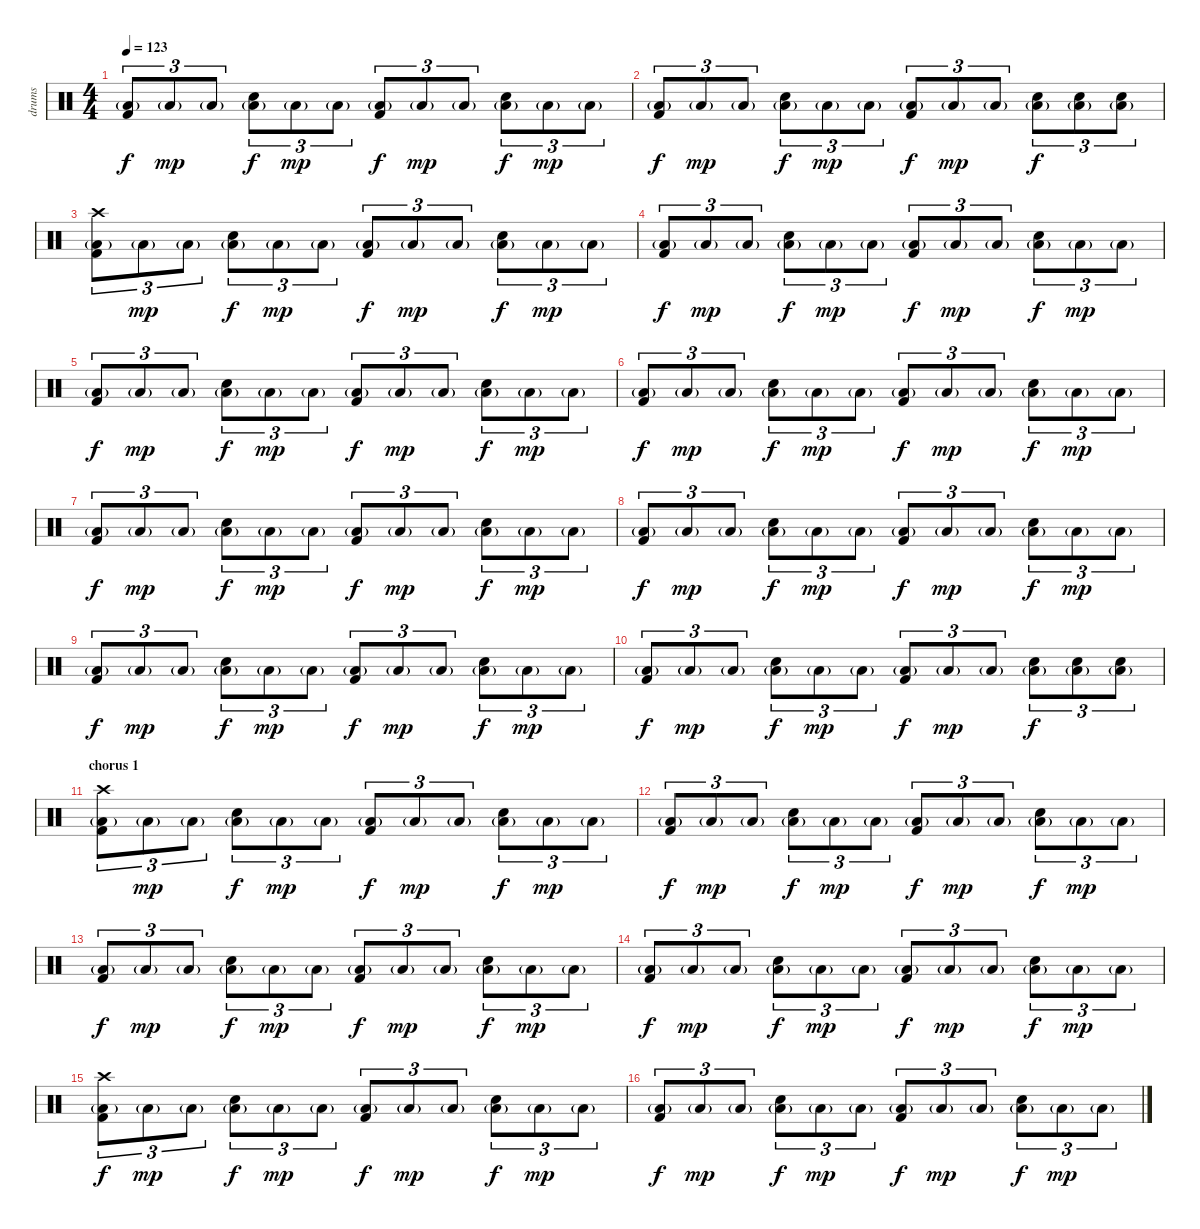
\track ("drums" "drums") {instrument percussion}
\staff {score}
\articulation defaults
\ts (4 4)
\tempo 123
\clef neutral
\ks c
("Low Floor Tom (hit)"{g} "Kick (hit) 2").8{tu (3 2) txt "" dy f} "Low Floor Tom (hit)"{g}.8{tu (3 2) txt "" dy mp} "Low Floor Tom (hit)"{g}.8{tu (3 2) txt ""} ("Low Floor Tom (hit)"{g} "Electric Snare (hit)").8{tu (3 2) txt "" dy f} "Low Floor Tom (hit)"{g}.8{tu (3 2) txt "" dy mp} "Low Floor Tom (hit)"{g}.8{tu (3 2) txt ""} ("Low Floor Tom (hit)"{g} "Kick (hit) 2").8{tu (3 2) txt "" dy f} "Low Floor Tom (hit)"{g}.8{tu (3 2) txt "" dy mp} "Low Floor Tom (hit)"{g}.8{tu (3 2) txt ""} ("Low Floor Tom (hit)"{g} "Electric Snare (hit)").8{tu (3 2) txt "" dy f} "Low Floor Tom (hit)"{g}.8{tu (3 2) txt "" dy mp} "Low Floor Tom (hit)"{g}.8{tu (3 2) txt ""} |
("Low Floor Tom (hit)"{g} "Kick (hit) 2").8{tu (3 2) txt "" dy f} "Low Floor Tom (hit)"{g}.8{tu (3 2) txt "" dy mp} "Low Floor Tom (hit)"{g}.8{tu (3 2) txt ""} ("Low Floor Tom (hit)"{g} "Electric Snare (hit)").8{tu (3 2) txt "" dy f} "Low Floor Tom (hit)"{g}.8{tu (3 2) txt "" dy mp} "Low Floor Tom (hit)"{g}.8{tu (3 2) txt ""} ("Low Floor Tom (hit)"{g} "Kick (hit) 2").8{tu (3 2) txt "" dy f} "Low Floor Tom (hit)"{g}.8{tu (3 2) txt "" dy mp} "Low Floor Tom (hit)"{g}.8{tu (3 2) txt ""} ("Low Floor Tom (hit)"{g} "Electric Snare (hit)").8{tu (3 2) txt "" dy f} ("Low Floor Tom (hit)"{g} "Electric Snare (hit)").8{tu (3 2) txt ""} ("Low Floor Tom (hit)"{g} "Electric Snare (hit)").8{tu (3 2) txt ""} |
("Low Floor Tom (hit)"{g} "Kick (hit) 2" "Crash high (hit)").8{tu (3 2) txt ""} "Low Floor Tom (hit)"{g}.8{tu (3 2) txt "" dy mp} "Low Floor Tom (hit)"{g}.8{tu (3 2) txt ""} ("Low Floor Tom (hit)"{g} "Electric Snare (hit)").8{tu (3 2) txt "" dy f} "Low Floor Tom (hit)"{g}.8{tu (3 2) txt "" dy mp} "Low Floor Tom (hit)"{g}.8{tu (3 2) txt ""} ("Low Floor Tom (hit)"{g} "Kick (hit) 2").8{tu (3 2) txt "" dy f} "Low Floor Tom (hit)"{g}.8{tu (3 2) txt "" dy mp} "Low Floor Tom (hit)"{g}.8{tu (3 2) txt ""} ("Low Floor Tom (hit)"{g} "Electric Snare (hit)").8{tu (3 2) txt "" dy f} "Low Floor Tom (hit)"{g}.8{tu (3 2) txt "" dy mp} "Low Floor Tom (hit)"{g}.8{tu (3 2) txt ""} |
("Low Floor Tom (hit)"{g} "Kick (hit) 2").8{tu (3 2) txt "" dy f} "Low Floor Tom (hit)"{g}.8{tu (3 2) txt "" dy mp} "Low Floor Tom (hit)"{g}.8{tu (3 2) txt ""} ("Low Floor Tom (hit)"{g} "Electric Snare (hit)").8{tu (3 2) txt "" dy f} "Low Floor Tom (hit)"{g}.8{tu (3 2) txt "" dy mp} "Low Floor Tom (hit)"{g}.8{tu (3 2) txt ""} ("Low Floor Tom (hit)"{g} "Kick (hit) 2").8{tu (3 2) txt "" dy f} "Low Floor Tom (hit)"{g}.8{tu (3 2) txt "" dy mp} "Low Floor Tom (hit)"{g}.8{tu (3 2) txt ""} ("Low Floor Tom (hit)"{g} "Electric Snare (hit)").8{tu (3 2) txt "" dy f} "Low Floor Tom (hit)"{g}.8{tu (3 2) txt "" dy mp} "Low Floor Tom (hit)"{g}.8{tu (3 2) txt ""} |
("Low Floor Tom (hit)"{g} "Kick (hit) 2").8{tu (3 2) txt "" dy f} "Low Floor Tom (hit)"{g}.8{tu (3 2) txt "" dy mp} "Low Floor Tom (hit)"{g}.8{tu (3 2) txt ""} ("Low Floor Tom (hit)"{g} "Electric Snare (hit)").8{tu (3 2) txt "" dy f} "Low Floor Tom (hit)"{g}.8{tu (3 2) txt "" dy mp} "Low Floor Tom (hit)"{g}.8{tu (3 2) txt ""} ("Low Floor Tom (hit)"{g} "Kick (hit) 2").8{tu (3 2) txt "" dy f} "Low Floor Tom (hit)"{g}.8{tu (3 2) txt "" dy mp} "Low Floor Tom (hit)"{g}.8{tu (3 2) txt ""} ("Low Floor Tom (hit)"{g} "Electric Snare (hit)").8{tu (3 2) txt "" dy f} "Low Floor Tom (hit)"{g}.8{tu (3 2) txt "" dy mp} "Low Floor Tom (hit)"{g}.8{tu (3 2) txt ""} |
("Low Floor Tom (hit)"{g} "Kick (hit) 2").8{tu (3 2) txt "" dy f} "Low Floor Tom (hit)"{g}.8{tu (3 2) txt "" dy mp} "Low Floor Tom (hit)"{g}.8{tu (3 2) txt ""} ("Low Floor Tom (hit)"{g} "Electric Snare (hit)").8{tu (3 2) txt "" dy f} "Low Floor Tom (hit)"{g}.8{tu (3 2) txt "" dy mp} "Low Floor Tom (hit)"{g}.8{tu (3 2) txt ""} ("Low Floor Tom (hit)"{g} "Kick (hit) 2").8{tu (3 2) txt "" dy f} "Low Floor Tom (hit)"{g}.8{tu (3 2) txt "" dy mp} "Low Floor Tom (hit)"{g}.8{tu (3 2) txt ""} ("Low Floor Tom (hit)"{g} "Electric Snare (hit)").8{tu (3 2) txt "" dy f} "Low Floor Tom (hit)"{g}.8{tu (3 2) txt "" dy mp} "Low Floor Tom (hit)"{g}.8{tu (3 2) txt ""} |
("Low Floor Tom (hit)"{g} "Kick (hit) 2").8{tu (3 2) txt "" dy f} "Low Floor Tom (hit)"{g}.8{tu (3 2) txt "" dy mp} "Low Floor Tom (hit)"{g}.8{tu (3 2) txt ""} ("Low Floor Tom (hit)"{g} "Electric Snare (hit)").8{tu (3 2) txt "" dy f} "Low Floor Tom (hit)"{g}.8{tu (3 2) txt "" dy mp} "Low Floor Tom (hit)"{g}.8{tu (3 2) txt ""} ("Low Floor Tom (hit)"{g} "Kick (hit) 2").8{tu (3 2) txt "" dy f} "Low Floor Tom (hit)"{g}.8{tu (3 2) txt "" dy mp} "Low Floor Tom (hit)"{g}.8{tu (3 2) txt ""} ("Low Floor Tom (hit)"{g} "Electric Snare (hit)").8{tu (3 2) txt "" dy f} "Low Floor Tom (hit)"{g}.8{tu (3 2) txt "" dy mp} "Low Floor Tom (hit)"{g}.8{tu (3 2) txt ""} |
("Low Floor Tom (hit)"{g} "Kick (hit) 2").8{tu (3 2) txt "" dy f} "Low Floor Tom (hit)"{g}.8{tu (3 2) txt "" dy mp} "Low Floor Tom (hit)"{g}.8{tu (3 2) txt ""} ("Low Floor Tom (hit)"{g} "Electric Snare (hit)").8{tu (3 2) txt "" dy f} "Low Floor Tom (hit)"{g}.8{tu (3 2) txt "" dy mp} "Low Floor Tom (hit)"{g}.8{tu (3 2) txt ""} ("Low Floor Tom (hit)"{g} "Kick (hit) 2").8{tu (3 2) txt "" dy f} "Low Floor Tom (hit)"{g}.8{tu (3 2) txt "" dy mp} "Low Floor Tom (hit)"{g}.8{tu (3 2) txt ""} ("Low Floor Tom (hit)"{g} "Electric Snare (hit)").8{tu (3 2) txt "" dy f} "Low Floor Tom (hit)"{g}.8{tu (3 2) txt "" dy mp} "Low Floor Tom (hit)"{g}.8{tu (3 2) txt ""} |
("Low Floor Tom (hit)"{g} "Kick (hit) 2").8{tu (3 2) txt "" dy f} "Low Floor Tom (hit)"{g}.8{tu (3 2) txt "" dy mp} "Low Floor Tom (hit)"{g}.8{tu (3 2) txt ""} ("Low Floor Tom (hit)"{g} "Electric Snare (hit)").8{tu (3 2) txt "" dy f} "Low Floor Tom (hit)"{g}.8{tu (3 2) txt "" dy mp} "Low Floor Tom (hit)"{g}.8{tu (3 2) txt ""} ("Low Floor Tom (hit)"{g} "Kick (hit) 2").8{tu (3 2) txt "" dy f} "Low Floor Tom (hit)"{g}.8{tu (3 2) txt "" dy mp} "Low Floor Tom (hit)"{g}.8{tu (3 2) txt ""} ("Low Floor Tom (hit)"{g} "Electric Snare (hit)").8{tu (3 2) txt "" dy f} "Low Floor Tom (hit)"{g}.8{tu (3 2) txt "" dy mp} "Low Floor Tom (hit)"{g}.8{tu (3 2) txt ""} |
("Low Floor Tom (hit)"{g} "Kick (hit) 2").8{tu (3 2) txt "" dy f} "Low Floor Tom (hit)"{g}.8{tu (3 2) txt "" dy mp} "Low Floor Tom (hit)"{g}.8{tu (3 2) txt ""} ("Low Floor Tom (hit)"{g} "Electric Snare (hit)").8{tu (3 2) txt "" dy f} "Low Floor Tom (hit)"{g}.8{tu (3 2) txt "" dy mp} "Low Floor Tom (hit)"{g}.8{tu (3 2) txt ""} ("Low Floor Tom (hit)"{g} "Kick (hit) 2").8{tu (3 2) txt "" dy f} "Low Floor Tom (hit)"{g}.8{tu (3 2) txt "" dy mp} "Low Floor Tom (hit)"{g}.8{tu (3 2) txt ""} ("Low Floor Tom (hit)"{g} "Electric Snare (hit)").8{tu (3 2) txt "" dy f} ("Low Floor Tom (hit)"{g} "Electric Snare (hit)").8{tu (3 2) txt ""} ("Low Floor Tom (hit)"{g} "Electric Snare (hit)").8{tu (3 2) txt ""} |
\section ("" "chorus 1")
("Low Floor Tom (hit)"{g} "Kick (hit) 2" "Crash high (hit)").8{tu (3 2) txt ""} "Low Floor Tom (hit)"{g}.8{tu (3 2) txt "" dy mp} "Low Floor Tom (hit)"{g}.8{tu (3 2) txt ""} ("Low Floor Tom (hit)"{g} "Electric Snare (hit)").8{tu (3 2) txt "" dy f} "Low Floor Tom (hit)"{g}.8{tu (3 2) txt "" dy mp} "Low Floor Tom (hit)"{g}.8{tu (3 2) txt ""} ("Low Floor Tom (hit)"{g} "Kick (hit) 2").8{tu (3 2) txt "" dy f} "Low Floor Tom (hit)"{g}.8{tu (3 2) txt "" dy mp} "Low Floor Tom (hit)"{g}.8{tu (3 2) txt ""} ("Low Floor Tom (hit)"{g} "Electric Snare (hit)").8{tu (3 2) txt "" dy f} "Low Floor Tom (hit)"{g}.8{tu (3 2) txt "" dy mp} "Low Floor Tom (hit)"{g}.8{tu (3 2) txt ""} |
("Low Floor Tom (hit)"{g} "Kick (hit) 2").8{tu (3 2) txt "" dy f} "Low Floor Tom (hit)"{g}.8{tu (3 2) txt "" dy mp} "Low Floor Tom (hit)"{g}.8{tu (3 2) txt ""} ("Low Floor Tom (hit)"{g} "Electric Snare (hit)").8{tu (3 2) txt "" dy f} "Low Floor Tom (hit)"{g}.8{tu (3 2) txt "" dy mp} "Low Floor Tom (hit)"{g}.8{tu (3 2) txt ""} ("Low Floor Tom (hit)"{g} "Kick (hit) 2").8{tu (3 2) txt "" dy f} "Low Floor Tom (hit)"{g}.8{tu (3 2) txt "" dy mp} "Low Floor Tom (hit)"{g}.8{tu (3 2) txt ""} ("Low Floor Tom (hit)"{g} "Electric Snare (hit)").8{tu (3 2) txt "" dy f} "Low Floor Tom (hit)"{g}.8{tu (3 2) txt "" dy mp} "Low Floor Tom (hit)"{g}.8{tu (3 2) txt ""} |
("Low Floor Tom (hit)"{g} "Kick (hit) 2").8{tu (3 2) txt "" dy f} "Low Floor Tom (hit)"{g}.8{tu (3 2) txt "" dy mp} "Low Floor Tom (hit)"{g}.8{tu (3 2) txt ""} ("Low Floor Tom (hit)"{g} "Electric Snare (hit)").8{tu (3 2) txt "" dy f} "Low Floor Tom (hit)"{g}.8{tu (3 2) txt "" dy mp} "Low Floor Tom (hit)"{g}.8{tu (3 2) txt ""} ("Low Floor Tom (hit)"{g} "Kick (hit) 2").8{tu (3 2) txt "" dy f} "Low Floor Tom (hit)"{g}.8{tu (3 2) txt "" dy mp} "Low Floor Tom (hit)"{g}.8{tu (3 2) txt ""} ("Low Floor Tom (hit)"{g} "Electric Snare (hit)").8{tu (3 2) txt "" dy f} "Low Floor Tom (hit)"{g}.8{tu (3 2) txt "" dy mp} "Low Floor Tom (hit)"{g}.8{tu (3 2) txt ""} |
("Low Floor Tom (hit)"{g} "Kick (hit) 2").8{tu (3 2) txt "" dy f} "Low Floor Tom (hit)"{g}.8{tu (3 2) txt "" dy mp} "Low Floor Tom (hit)"{g}.8{tu (3 2) txt ""} ("Low Floor Tom (hit)"{g} "Electric Snare (hit)").8{tu (3 2) txt "" dy f} "Low Floor Tom (hit)"{g}.8{tu (3 2) txt "" dy mp} "Low Floor Tom (hit)"{g}.8{tu (3 2) txt ""} ("Low Floor Tom (hit)"{g} "Kick (hit) 2").8{tu (3 2) txt "" dy f} "Low Floor Tom (hit)"{g}.8{tu (3 2) txt "" dy mp} "Low Floor Tom (hit)"{g}.8{tu (3 2) txt ""} ("Low Floor Tom (hit)"{g} "Electric Snare (hit)").8{tu (3 2) txt "" dy f} "Low Floor Tom (hit)"{g}.8{tu (3 2) txt "" dy mp} "Low Floor Tom (hit)"{g}.8{tu (3 2) txt ""} |
("Low Floor Tom (hit)"{g} "Kick (hit) 2" "Crash high (hit)").8{tu (3 2) txt "" dy f} "Low Floor Tom (hit)"{g}.8{tu (3 2) txt "" dy mp} "Low Floor Tom (hit)"{g}.8{tu (3 2) txt ""} ("Low Floor Tom (hit)"{g} "Electric Snare (hit)").8{tu (3 2) txt "" dy f} "Low Floor Tom (hit)"{g}.8{tu (3 2) txt "" dy mp} "Low Floor Tom (hit)"{g}.8{tu (3 2) txt ""} ("Low Floor Tom (hit)"{g} "Kick (hit) 2").8{tu (3 2) txt "" dy f} "Low Floor Tom (hit)"{g}.8{tu (3 2) txt "" dy mp} "Low Floor Tom (hit)"{g}.8{tu (3 2) txt ""} ("Low Floor Tom (hit)"{g} "Electric Snare (hit)").8{tu (3 2) txt "" dy f} "Low Floor Tom (hit)"{g}.8{tu (3 2) txt "" dy mp} "Low Floor Tom (hit)"{g}.8{tu (3 2) txt ""} |
("Low Floor Tom (hit)"{g} "Kick (hit) 2").8{tu (3 2) txt "" dy f} "Low Floor Tom (hit)"{g}.8{tu (3 2) txt "" dy mp} "Low Floor Tom (hit)"{g}.8{tu (3 2) txt ""} ("Low Floor Tom (hit)"{g} "Electric Snare (hit)").8{tu (3 2) txt "" dy f} "Low Floor Tom (hit)"{g}.8{tu (3 2) txt "" dy mp} "Low Floor Tom (hit)"{g}.8{tu (3 2) txt ""} ("Low Floor Tom (hit)"{g} "Kick (hit) 2").8{tu (3 2) txt "" dy f} "Low Floor Tom (hit)"{g}.8{tu (3 2) txt "" dy mp} "Low Floor Tom (hit)"{g}.8{tu (3 2) txt ""} ("Low Floor Tom (hit)"{g} "Electric Snare (hit)").8{tu (3 2) txt "" dy f} "Low Floor Tom (hit)"{g}.8{tu (3 2) txt "" dy mp} "Low Floor Tom (hit)"{g}.8{tu (3 2) txt ""}
